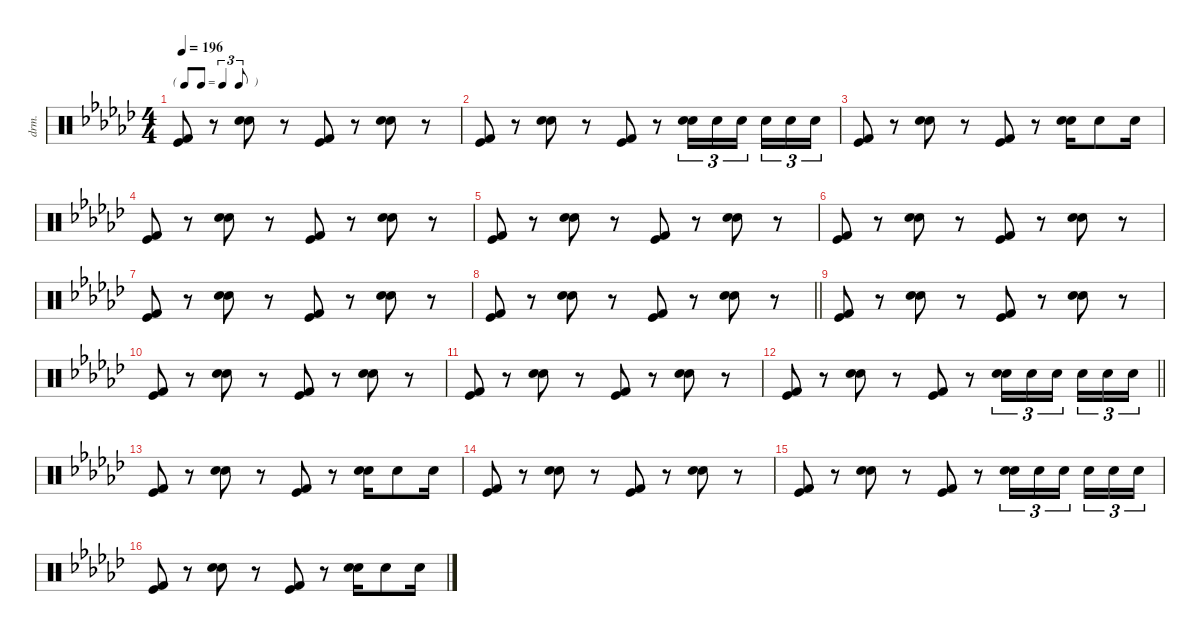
\defaultSystemsLayout 4
\hideDynamics
\bracketExtendMode nobrackets
\otherSystemsTrackNameOrientation horizontal
\track ("Percussions" "drm.") {defaultSystemsLayout 4 instrument percussion}
\staff {score}
\articulation defaults
\ts (4 4)
\tf triplet8th
\tempo 196
\clef neutral
\ks gb
("Kick (hit) 2"{acc forcenatural} "Kick (hit)"{acc forcenatural}).8{dy f beam Up} r.8{beam Up} ("Snare (hit) 2"{acc forcenatural} "Snare (hit) 2"{acc forcenatural}).8{beam Down} r.8{beam Down} ("Kick (hit) 2"{acc forcenatural} "Kick (hit)"{acc forcenatural}).8{beam Up} r.8{beam Up} ("Snare (hit) 2"{acc forcenatural} "Snare (hit) 2"{acc forcenatural}).8{beam Down} r.8{beam Down} |
("Kick (hit) 2"{acc forcenatural} "Kick (hit)"{acc forcenatural}).8{beam Up} r.8{beam Up} ("Snare (hit) 2"{acc forcenatural} "Snare (hit) 2"{acc forcenatural}).8{beam Down} r.8{beam Down} ("Kick (hit) 2"{acc forcenatural} "Kick (hit)"{acc forcenatural}).8{beam Up} r.8{beam Up} ("Hand Clap (hit)"{acc forcenatural} "Snare (hit) 2"{acc forcenatural}).16{tu (3 2) beam Down} "Hand Clap (hit)"{acc forcenatural}.16{tu (3 2) beam Down} "Hand Clap (hit)"{acc forcenatural}.16{tu (3 2) beam Down} "Hand Clap (hit)"{acc forcenatural}.16{tu (3 2) beam Down} "Hand Clap (hit)"{acc forcenatural}.16{tu (3 2) beam Down} "Hand Clap (hit)"{acc forcenatural}.16{tu (3 2) beam Down} |
("Kick (hit) 2"{acc forcenatural} "Kick (hit)"{acc forcenatural}).8{beam Up} r.8{beam Up} ("Snare (hit) 2"{acc forcenatural} "Snare (hit) 2"{acc forcenatural}).8{beam Down} r.8{beam Down} ("Kick (hit) 2"{acc forcenatural} "Kick (hit)"{acc forcenatural}).8{beam Up} r.8{beam Up} ("Snare (hit) 2"{acc forcenatural} "Snare (hit) 2"{acc forcenatural}).16{beam Down} "Hand Clap (hit)"{acc forcenatural}.8{beam Down} "Hand Clap (hit)"{acc forcenatural}.16{beam Down} |
("Kick (hit) 2"{acc forcenatural} "Kick (hit)"{acc forcenatural}).8{beam Up} r.8{beam Up} ("Snare (hit) 2"{acc forcenatural} "Snare (hit) 2"{acc forcenatural}).8{beam Down} r.8{beam Down} ("Kick (hit) 2"{acc forcenatural} "Kick (hit)"{acc forcenatural}).8{beam Up} r.8{beam Up} ("Snare (hit) 2"{acc forcenatural} "Snare (hit) 2"{acc forcenatural}).8{beam Down} r.8{beam Down} |
("Kick (hit) 2"{acc forcenatural} "Kick (hit)"{acc forcenatural}).8{beam Up} r.8{beam Up} ("Snare (hit) 2"{acc forcenatural} "Snare (hit) 2"{acc forcenatural}).8{beam Down} r.8{beam Down} ("Kick (hit) 2"{acc forcenatural} "Kick (hit)"{acc forcenatural}).8{beam Up} r.8{beam Up} ("Snare (hit) 2"{acc forcenatural} "Snare (hit) 2"{acc forcenatural}).8{beam Down} r.8{beam Down} |
("Kick (hit) 2"{acc forcenatural} "Kick (hit)"{acc forcenatural}).8{beam Up} r.8{beam Up} ("Snare (hit) 2"{acc forcenatural} "Snare (hit) 2"{acc forcenatural}).8{beam Down} r.8{beam Down} ("Kick (hit) 2"{acc forcenatural} "Kick (hit)"{acc forcenatural}).8{beam Up} r.8{beam Up} ("Snare (hit) 2"{acc forcenatural} "Snare (hit) 2"{acc forcenatural}).8{beam Down} r.8{beam Down} |
("Kick (hit) 2"{acc forcenatural} "Kick (hit)"{acc forcenatural}).8{beam Up} r.8{beam Up} ("Snare (hit) 2"{acc forcenatural} "Snare (hit) 2"{acc forcenatural}).8{beam Down} r.8{beam Down} ("Kick (hit) 2"{acc forcenatural} "Kick (hit)"{acc forcenatural}).8{beam Up} r.8{beam Up} ("Snare (hit) 2"{acc forcenatural} "Snare (hit) 2"{acc forcenatural}).8{beam Down} r.8{beam Down} |
\barLineRight lightlight
("Kick (hit) 2"{acc forcenatural} "Kick (hit)"{acc forcenatural}).8{beam Up} r.8{beam Up} ("Snare (hit) 2"{acc forcenatural} "Snare (hit) 2"{acc forcenatural}).8{beam Down} r.8{beam Down} ("Kick (hit) 2"{acc forcenatural} "Kick (hit)"{acc forcenatural}).8{beam Up} r.8{beam Up} ("Snare (hit) 2"{acc forcenatural} "Snare (hit) 2"{acc forcenatural}).8{beam Down} r.8{beam Down} |
("Kick (hit) 2"{acc forcenatural} "Kick (hit)"{acc forcenatural}).8{beam Up} r.8{beam Up} ("Snare (hit) 2"{acc forcenatural} "Snare (hit) 2"{acc forcenatural}).8{beam Down} r.8{beam Down} ("Kick (hit) 2"{acc forcenatural} "Kick (hit)"{acc forcenatural}).8{beam Up} r.8{beam Up} ("Snare (hit) 2"{acc forcenatural} "Snare (hit) 2"{acc forcenatural}).8{beam Down} r.8{beam Down} |
("Kick (hit) 2"{acc forcenatural} "Kick (hit)"{acc forcenatural}).8{beam Up} r.8{beam Up} ("Snare (hit) 2"{acc forcenatural} "Snare (hit) 2"{acc forcenatural}).8{beam Down} r.8{beam Down} ("Kick (hit) 2"{acc forcenatural} "Kick (hit)"{acc forcenatural}).8{beam Up} r.8{beam Up} ("Snare (hit) 2"{acc forcenatural} "Snare (hit) 2"{acc forcenatural}).8{beam Down} r.8{beam Down} |
("Kick (hit) 2"{acc forcenatural} "Kick (hit)"{acc forcenatural}).8{beam Up} r.8{beam Up} ("Snare (hit) 2"{acc forcenatural} "Snare (hit) 2"{acc forcenatural}).8{beam Down} r.8{beam Down} ("Kick (hit) 2"{acc forcenatural} "Kick (hit)"{acc forcenatural}).8{beam Up} r.8{beam Up} ("Snare (hit) 2"{acc forcenatural} "Snare (hit) 2"{acc forcenatural}).8{beam Down} r.8{beam Down} |
\barLineRight lightlight
("Kick (hit) 2"{acc forcenatural} "Kick (hit)"{acc forcenatural}).8{beam Up} r.8{beam Up} ("Snare (hit) 2"{acc forcenatural} "Snare (hit) 2"{acc forcenatural}).8{beam Down} r.8{beam Down} ("Kick (hit) 2"{acc forcenatural} "Kick (hit)"{acc forcenatural}).8{beam Up} r.8{beam Up} ("Hand Clap (hit)"{acc forcenatural} "Snare (hit) 2"{acc forcenatural}).16{tu (3 2) beam Down} "Hand Clap (hit)"{acc forcenatural}.16{tu (3 2) beam Down} "Hand Clap (hit)"{acc forcenatural}.16{tu (3 2) beam Down} "Hand Clap (hit)"{acc forcenatural}.16{tu (3 2) beam Down} "Hand Clap (hit)"{acc forcenatural}.16{tu (3 2) beam Down} "Hand Clap (hit)"{acc forcenatural}.16{tu (3 2) beam Down} |
("Kick (hit) 2"{acc forcenatural} "Kick (hit)"{acc forcenatural}).8{beam Up} r.8{beam Up} ("Snare (hit) 2"{acc forcenatural} "Snare (hit) 2"{acc forcenatural}).8{beam Down} r.8{beam Down} ("Kick (hit) 2"{acc forcenatural} "Kick (hit)"{acc forcenatural}).8{beam Up} r.8{beam Up} ("Snare (hit) 2"{acc forcenatural} "Snare (hit) 2"{acc forcenatural}).16{beam Down} "Hand Clap (hit)"{acc forcenatural}.8{beam Down} "Hand Clap (hit)"{acc forcenatural}.16{beam Down} |
("Kick (hit) 2"{acc forcenatural} "Kick (hit)"{acc forcenatural}).8{beam Up} r.8{beam Up} ("Snare (hit) 2"{acc forcenatural} "Snare (hit) 2"{acc forcenatural}).8{beam Down} r.8{beam Down} ("Kick (hit) 2"{acc forcenatural} "Kick (hit)"{acc forcenatural}).8{beam Up} r.8{beam Up} ("Snare (hit) 2"{acc forcenatural} "Snare (hit) 2"{acc forcenatural}).8{beam Down} r.8{beam Down} |
("Kick (hit) 2"{acc forcenatural} "Kick (hit)"{acc forcenatural}).8{beam Up} r.8{beam Up} ("Snare (hit) 2"{acc forcenatural} "Snare (hit) 2"{acc forcenatural}).8{beam Down} r.8{beam Down} ("Kick (hit) 2"{acc forcenatural} "Kick (hit)"{acc forcenatural}).8{beam Up} r.8{beam Up} ("Hand Clap (hit)"{acc forcenatural} "Snare (hit) 2"{acc forcenatural}).16{tu (3 2) beam Down} "Hand Clap (hit)"{acc forcenatural}.16{tu (3 2) beam Down} "Hand Clap (hit)"{acc forcenatural}.16{tu (3 2) beam Down} "Hand Clap (hit)"{acc forcenatural}.16{tu (3 2) beam Down} "Hand Clap (hit)"{acc forcenatural}.16{tu (3 2) beam Down} "Hand Clap (hit)"{acc forcenatural}.16{tu (3 2) beam Down} |
("Kick (hit) 2"{acc forcenatural} "Kick (hit)"{acc forcenatural}).8{beam Up} r.8{beam Up} ("Snare (hit) 2"{acc forcenatural} "Snare (hit) 2"{acc forcenatural}).8{beam Down} r.8{beam Down} ("Kick (hit) 2"{acc forcenatural} "Kick (hit)"{acc forcenatural}).8{beam Up} r.8{beam Up} ("Snare (hit) 2"{acc forcenatural} "Snare (hit) 2"{acc forcenatural}).16{beam Down} "Hand Clap (hit)"{acc forcenatural}.8{beam Down} "Hand Clap (hit)"{acc forcenatural}.16{beam Down}
